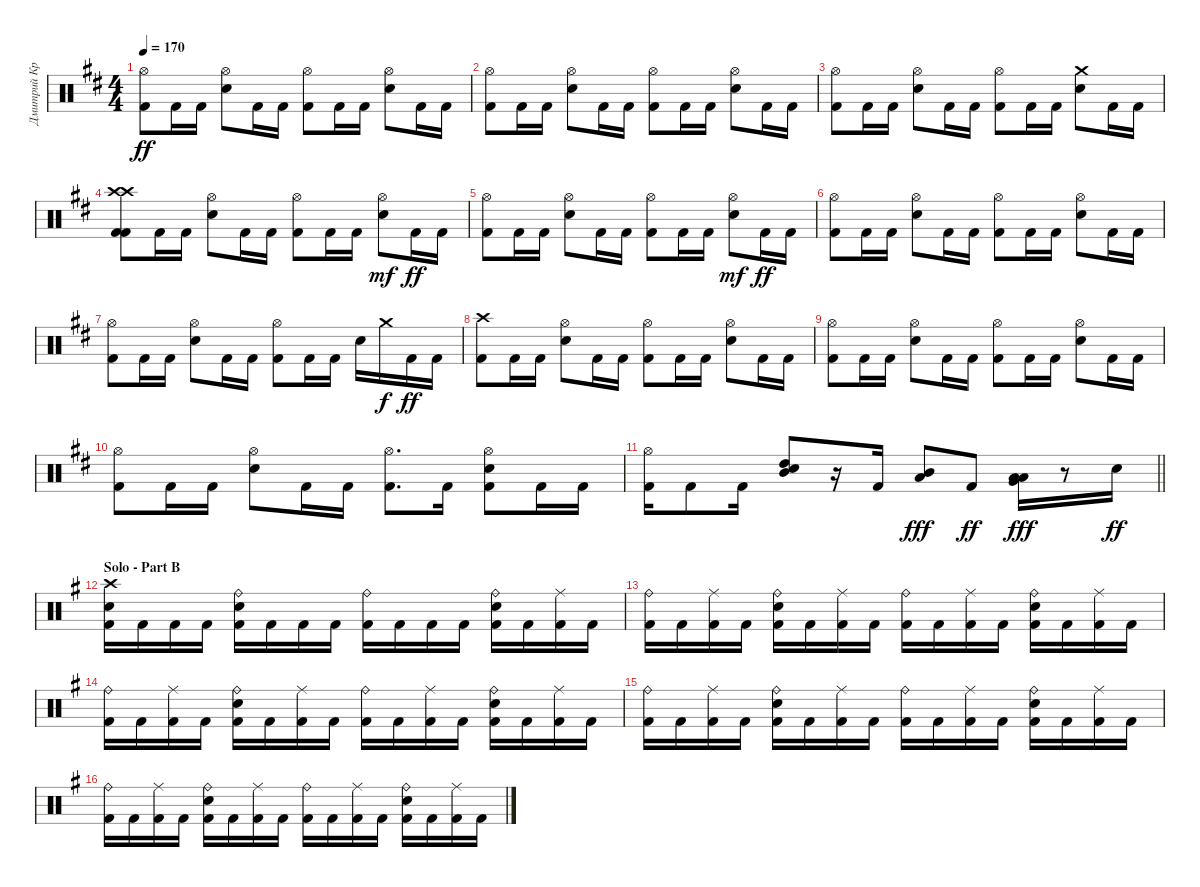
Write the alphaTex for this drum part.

\track ("Дмитрий Кривенков" "Дмитрий Кр") {instrument percussion}
\staff {score}
\articulation defaults
\ts (4 4)
\tempo 170
\clef neutral
\ks d
("Hi-Hat (open)" "Kick (hit) 2").8{dy ff} "Kick (hit) 2".16 "Kick (hit) 2".16 ("Hi-Hat (open)" "Electric Snare (hit)").8 "Kick (hit) 2".16 "Kick (hit) 2".16 ("Hi-Hat (open)" "Kick (hit) 2").8 "Kick (hit) 2".16 "Kick (hit) 2".16 ("Hi-Hat (open)" "Electric Snare (hit)").8 "Kick (hit) 2".16 "Kick (hit) 2".16 |
("Hi-Hat (open)" "Kick (hit) 2").8 "Kick (hit) 2".16 "Kick (hit) 2".16 ("Hi-Hat (open)" "Electric Snare (hit)").8 "Kick (hit) 2".16 "Kick (hit) 2".16 ("Hi-Hat (open)" "Kick (hit) 2").8 "Kick (hit) 2".16 "Kick (hit) 2".16 ("Hi-Hat (open)" "Electric Snare (hit)").8 "Kick (hit) 2".16 "Kick (hit) 2".16 |
("Hi-Hat (open)" "Kick (hit) 2").8 "Kick (hit) 2".16 "Kick (hit) 2".16 ("Hi-Hat (open)" "Electric Snare (hit)").8 "Kick (hit) 2".16 "Kick (hit) 2".16 ("Hi-Hat (open)" "Kick (hit) 2").8 "Kick (hit) 2".16 "Kick (hit) 2".16 ("Electric Snare (hit)" "Crash medium (hit)").8 "Kick (hit) 2".16 "Kick (hit) 2".16 |
("Crash high (hit)" "Kick (hit) 2" "Crash high (hit)" "Kick (hit) 2").8 "Kick (hit) 2".16 "Kick (hit) 2".16 ("Hi-Hat (open)" "Electric Snare (hit)").8 "Kick (hit) 2".16 "Kick (hit) 2".16 ("Hi-Hat (open)" "Kick (hit) 2").8 "Kick (hit) 2".16 "Kick (hit) 2".16 ("Electric Snare (hit)" "Hi-Hat (open)").8{dy mf} "Kick (hit) 2".16{dy ff} "Kick (hit) 2".16 |
("Hi-Hat (open)" "Kick (hit) 2").8 "Kick (hit) 2".16 "Kick (hit) 2".16 ("Hi-Hat (open)" "Electric Snare (hit)").8 "Kick (hit) 2".16 "Kick (hit) 2".16 ("Hi-Hat (open)" "Kick (hit) 2").8 "Kick (hit) 2".16 "Kick (hit) 2".16 ("Electric Snare (hit)" "Hi-Hat (open)").8{dy mf} "Kick (hit) 2".16{dy ff} "Kick (hit) 2".16 |
("Hi-Hat (open)" "Kick (hit) 2").8 "Kick (hit) 2".16 "Kick (hit) 2".16 ("Hi-Hat (open)" "Electric Snare (hit)").8 "Kick (hit) 2".16 "Kick (hit) 2".16 ("Hi-Hat (open)" "Kick (hit) 2").8 "Kick (hit) 2".16 "Kick (hit) 2".16 ("Hi-Hat (open)" "Electric Snare (hit)").8 "Kick (hit) 2".16 "Kick (hit) 2".16 |
("Hi-Hat (open)" "Kick (hit) 2").8 "Kick (hit) 2".16 "Kick (hit) 2".16 ("Hi-Hat (open)" "Electric Snare (hit)").8 "Kick (hit) 2".16 "Kick (hit) 2".16 ("Hi-Hat (open)" "Kick (hit) 2").8 "Kick (hit) 2".16 "Kick (hit) 2".16 "Electric Snare (hit)".16 "Crash medium (hit)".16{dy f} "Kick (hit) 2".16{dy ff} "Kick (hit) 2".16 |
("Crash high (hit)" "Kick (hit) 2").8 "Kick (hit) 2".16 "Kick (hit) 2".16 ("Hi-Hat (open)" "Electric Snare (hit)").8 "Kick (hit) 2".16 "Kick (hit) 2".16 ("Hi-Hat (open)" "Kick (hit) 2").8 "Kick (hit) 2".16 "Kick (hit) 2".16 ("Hi-Hat (open)" "Electric Snare (hit)").8 "Kick (hit) 2".16 "Kick (hit) 2".16 |
("Hi-Hat (open)" "Kick (hit) 2").8 "Kick (hit) 2".16 "Kick (hit) 2".16 ("Hi-Hat (open)" "Electric Snare (hit)").8 "Kick (hit) 2".16 "Kick (hit) 2".16 ("Hi-Hat (open)" "Kick (hit) 2").8 "Kick (hit) 2".16 "Kick (hit) 2".16 ("Hi-Hat (open)" "Electric Snare (hit)").8 "Kick (hit) 2".16 "Kick (hit) 2".16 |
("Hi-Hat (open)" "Kick (hit) 2").8 "Kick (hit) 2".16 "Kick (hit) 2".16 ("Hi-Hat (open)" "Electric Snare (hit)").8 "Kick (hit) 2".16 "Kick (hit) 2".16 ("Hi-Hat (open)" "Kick (hit) 2").8{d} "Kick (hit) 2".16 ("Kick (hit) 2" "Hi-Hat (open)" "Electric Snare (hit)").8 "Kick (hit) 2".16 "Kick (hit) 2".16 |
\barLineRight lightlight
("Hi-Hat (open)" "Kick (hit) 2").16 "Kick (hit) 2".8 "Kick (hit) 2".16 ("High Tom (hit)" "Mid Tom (hit)" "Electric Snare (hit)").8 r.16 "Kick (hit) 2".16 ("Mid Tom (hit)" "Low Tom (hit)").8{dy fff} "Kick (hit) 2".8{dy ff} ("Low Tom (hit)" "Very Low Tom (hit)" "Low Floor Tom (hit)").16{dy fff} r.8 "Electric Snare (hit)".16{dy ff} |
\section ("" "Solo - Part B")
\ks g
("Electric Snare (hit)" "Kick (hit) 2" "Crash high (hit)").16 "Kick (hit) 2".16 "Kick (hit) 2".16 "Kick (hit) 2".16 ("Kick (hit) 2" "Ride (bell)" "Electric Snare (hit)").16 "Kick (hit) 2".16 "Kick (hit) 2".16 "Kick (hit) 2".16 ("Kick (hit) 2" "Ride (bell)").16 "Kick (hit) 2".16 "Kick (hit) 2".16 "Kick (hit) 2".16 ("Kick (hit) 2" "Ride (bell)" "Electric Snare (hit)").16 "Kick (hit) 2".16 ("Kick (hit) 2" "Ride (middle)").16 "Kick (hit) 2".16 |
("Kick (hit) 2" "Ride (bell)").16 "Kick (hit) 2".16 ("Kick (hit) 2" "Ride (middle)").16 "Kick (hit) 2".16 ("Kick (hit) 2" "Ride (bell)" "Electric Snare (hit)").16 "Kick (hit) 2".16 ("Kick (hit) 2" "Ride (middle)").16 "Kick (hit) 2".16 ("Kick (hit) 2" "Ride (bell)").16 "Kick (hit) 2".16 ("Kick (hit) 2" "Ride (middle)").16 "Kick (hit) 2".16 ("Kick (hit) 2" "Ride (bell)" "Electric Snare (hit)").16 "Kick (hit) 2".16 ("Kick (hit) 2" "Ride (middle)").16 "Kick (hit) 2".16 |
("Kick (hit) 2" "Ride (bell)").16 "Kick (hit) 2".16 ("Kick (hit) 2" "Ride (middle)").16 "Kick (hit) 2".16 ("Kick (hit) 2" "Ride (bell)" "Electric Snare (hit)").16 "Kick (hit) 2".16 ("Kick (hit) 2" "Ride (middle)").16 "Kick (hit) 2".16 ("Kick (hit) 2" "Ride (bell)").16 "Kick (hit) 2".16 ("Kick (hit) 2" "Ride (middle)").16 "Kick (hit) 2".16 ("Kick (hit) 2" "Ride (bell)" "Electric Snare (hit)").16 "Kick (hit) 2".16 ("Kick (hit) 2" "Ride (middle)").16 "Kick (hit) 2".16 |
("Kick (hit) 2" "Ride (bell)").16 "Kick (hit) 2".16 ("Kick (hit) 2" "Ride (middle)").16 "Kick (hit) 2".16 ("Kick (hit) 2" "Ride (bell)" "Electric Snare (hit)").16 "Kick (hit) 2".16 ("Kick (hit) 2" "Ride (middle)").16 "Kick (hit) 2".16 ("Kick (hit) 2" "Ride (bell)").16 "Kick (hit) 2".16 ("Kick (hit) 2" "Ride (middle)").16 "Kick (hit) 2".16 ("Kick (hit) 2" "Ride (bell)" "Electric Snare (hit)").16 "Kick (hit) 2".16 ("Kick (hit) 2" "Ride (middle)").16 "Kick (hit) 2".16 |
("Kick (hit) 2" "Ride (bell)").16 "Kick (hit) 2".16 ("Kick (hit) 2" "Ride (middle)").16 "Kick (hit) 2".16 ("Kick (hit) 2" "Ride (bell)" "Electric Snare (hit)").16 "Kick (hit) 2".16 ("Kick (hit) 2" "Ride (middle)").16 "Kick (hit) 2".16 ("Kick (hit) 2" "Ride (bell)").16 "Kick (hit) 2".16 ("Kick (hit) 2" "Ride (middle)").16 "Kick (hit) 2".16 ("Kick (hit) 2" "Ride (bell)" "Electric Snare (hit)").16 "Kick (hit) 2".16 ("Kick (hit) 2" "Ride (middle)").16 "Kick (hit) 2".16
